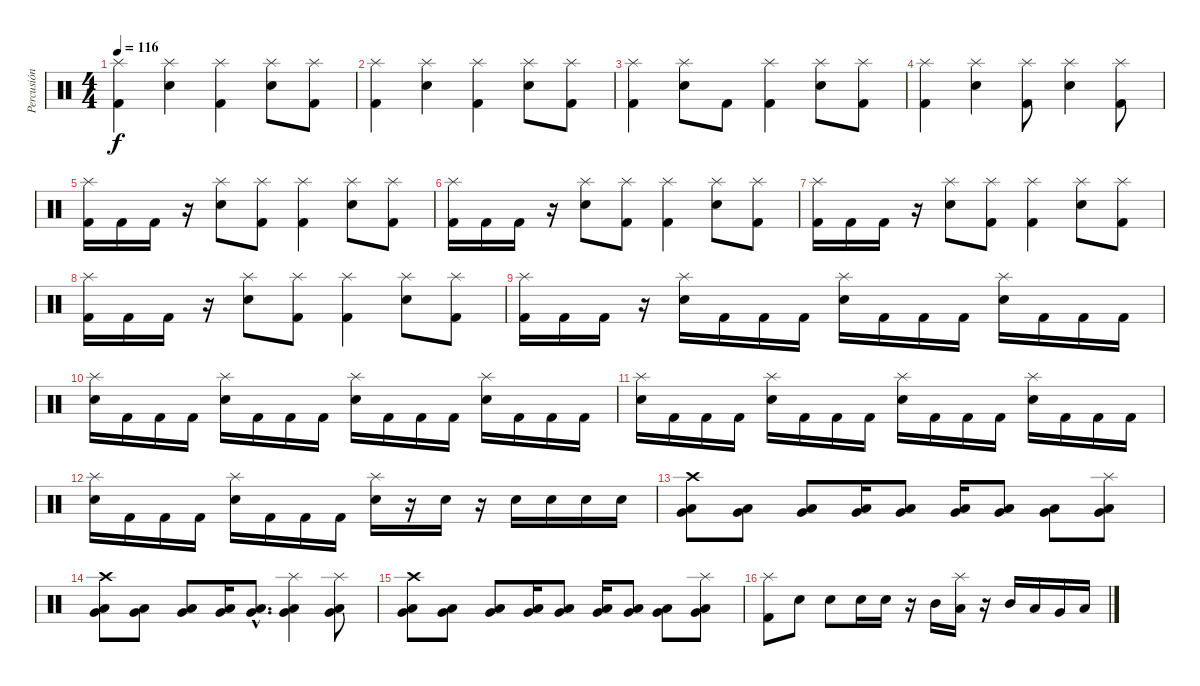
\track ("Percusión" "Percusión") {instrument percussion}
\staff {score}
\articulation defaults
\ts (4 4)
\tempo 116
\clef neutral
\ks c
("Splash (hit)" "Kick (hit) 2").4{dy f} ("Splash (hit)" "Snare (hit) 2").4 ("Splash (hit)" "Kick (hit) 2").4 ("Splash (hit)" "Snare (hit) 2").8 ("Splash (hit)" "Kick (hit) 2").8 |
("Splash (hit)" "Kick (hit) 2").4 ("Splash (hit)" "Snare (hit) 2").4 ("Splash (hit)" "Kick (hit) 2").4 ("Splash (hit)" "Snare (hit) 2").8 ("Splash (hit)" "Kick (hit) 2").8 |
("Splash (hit)" "Kick (hit) 2").4 ("Splash (hit)" "Snare (hit) 2").8 "Kick (hit) 2".8 ("Splash (hit)" "Kick (hit) 2").4 ("Splash (hit)" "Snare (hit) 2").8 ("Splash (hit)" "Kick (hit) 2").8 |
("Splash (hit)" "Kick (hit) 2").4 ("Splash (hit)" "Snare (hit) 2").4 ("Splash (hit)" "Kick (hit) 2").8 ("Splash (hit)" "Snare (hit) 2").4 ("Splash (hit)" "Kick (hit) 2").8 |
("Splash (hit)" "Kick (hit) 2").16 "Kick (hit) 2".16 "Kick (hit) 2".16 r.16 ("Splash (hit)" "Snare (hit) 2").8 ("Splash (hit)" "Kick (hit) 2").8 ("Splash (hit)" "Kick (hit) 2").4 ("Splash (hit)" "Snare (hit) 2").8 ("Splash (hit)" "Kick (hit) 2").8 |
("Splash (hit)" "Kick (hit) 2").16 "Kick (hit) 2".16 "Kick (hit) 2".16 r.16 ("Splash (hit)" "Snare (hit) 2").8 ("Splash (hit)" "Kick (hit) 2").8 ("Splash (hit)" "Kick (hit) 2").4 ("Splash (hit)" "Snare (hit) 2").8 ("Splash (hit)" "Kick (hit) 2").8 |
("Splash (hit)" "Kick (hit) 2").16 "Kick (hit) 2".16 "Kick (hit) 2".16 r.16 ("Splash (hit)" "Snare (hit) 2").8 ("Splash (hit)" "Kick (hit) 2").8 ("Splash (hit)" "Kick (hit) 2").4 ("Splash (hit)" "Snare (hit) 2").8 ("Splash (hit)" "Kick (hit) 2").8 |
("Splash (hit)" "Kick (hit) 2").16 "Kick (hit) 2".16 "Kick (hit) 2".16 r.16 ("Splash (hit)" "Snare (hit) 2").8 ("Splash (hit)" "Kick (hit) 2").8 ("Splash (hit)" "Kick (hit) 2").4 ("Splash (hit)" "Snare (hit) 2").8 ("Splash (hit)" "Kick (hit) 2").8 |
("Splash (hit)" "Kick (hit) 2").16 "Kick (hit) 2".16 "Kick (hit) 2".16 r.16 ("Splash (hit)" "Snare (hit) 2").16 "Kick (hit) 2".16 "Kick (hit) 2".16 "Kick (hit) 2".16 ("Splash (hit)" "Snare (hit) 2").16 "Kick (hit) 2".16 "Kick (hit) 2".16 "Kick (hit) 2".16 ("Splash (hit)" "Snare (hit) 2").16 "Kick (hit) 2".16 "Kick (hit) 2".16 "Kick (hit) 2".16 |
("Splash (hit)" "Snare (hit) 2").16 "Kick (hit) 2".16 "Kick (hit) 2".16 "Kick (hit) 2".16 ("Splash (hit)" "Snare (hit) 2").16 "Kick (hit) 2".16 "Kick (hit) 2".16 "Kick (hit) 2".16 ("Splash (hit)" "Snare (hit) 2").16 "Kick (hit) 2".16 "Kick (hit) 2".16 "Kick (hit) 2".16 ("Splash (hit)" "Snare (hit) 2").16 "Kick (hit) 2".16 "Kick (hit) 2".16 "Kick (hit) 2".16 |
("Splash (hit)" "Snare (hit) 2").16 "Kick (hit) 2".16 "Kick (hit) 2".16 "Kick (hit) 2".16 ("Splash (hit)" "Snare (hit) 2").16 "Kick (hit) 2".16 "Kick (hit) 2".16 "Kick (hit) 2".16 ("Splash (hit)" "Snare (hit) 2").16 "Kick (hit) 2".16 "Kick (hit) 2".16 "Kick (hit) 2".16 ("Splash (hit)" "Snare (hit) 2").16 "Kick (hit) 2".16 "Kick (hit) 2".16 "Kick (hit) 2".16 |
("Splash (hit)" "Snare (hit) 2").16 "Kick (hit) 2".16 "Kick (hit) 2".16 "Kick (hit) 2".16 ("Splash (hit)" "Snare (hit) 2").16 "Kick (hit) 2".16 "Kick (hit) 2".16 "Kick (hit) 2".16 ("Splash (hit)" "Snare (hit) 2").16 r.16 "Snare (hit) 2".16 r.16 "Snare (hit) 2".16 "Snare (hit) 2".16 "Snare (hit) 2".16 "Snare (hit) 2".16 |
("Very Low Tom (hit)" "Low Tom (hit)" "Crash high (hit)").8 ("Very Low Tom (hit)" "Low Floor Tom (hit)").8 ("Very Low Tom (hit)" "Low Floor Tom (hit)").8 ("Very Low Tom (hit)" "Low Floor Tom (hit)").16 ("Very Low Tom (hit)" "Low Floor Tom (hit)").8 ("Very Low Tom (hit)" "Low Floor Tom (hit)").16 ("Very Low Tom (hit)" "Low Floor Tom (hit)").8 ("Very Low Tom (hit)" "Low Floor Tom (hit)").8 ("Very Low Tom (hit)" "Low Tom (hit)" "Splash (hit)").8 |
("Very Low Tom (hit)" "Low Tom (hit)" "Crash high (hit)").8 ("Very Low Tom (hit)" "Low Floor Tom (hit)").8 ("Very Low Tom (hit)" "Low Floor Tom (hit)").8 ("Very Low Tom (hit)" "Low Floor Tom (hit)").16 ("Very Low Tom (hit)"{hac} "Low Floor Tom (hit)"{hac}).8{d} ("Very Low Tom (hit)" "Low Floor Tom (hit)" "Splash (hit)").4 ("Very Low Tom (hit)" "Low Tom (hit)" "Splash (hit)").8 |
("Very Low Tom (hit)" "Low Tom (hit)" "Crash high (hit)").8 ("Very Low Tom (hit)" "Low Floor Tom (hit)").8 ("Very Low Tom (hit)" "Low Floor Tom (hit)").8 ("Very Low Tom (hit)" "Low Floor Tom (hit)").16 ("Very Low Tom (hit)" "Low Floor Tom (hit)").8 ("Very Low Tom (hit)" "Low Floor Tom (hit)").16 ("Very Low Tom (hit)" "Low Floor Tom (hit)").8 ("Very Low Tom (hit)" "Low Floor Tom (hit)").8 ("Very Low Tom (hit)" "Low Tom (hit)" "Splash (hit)").8 |
("Splash (hit)" "Kick (hit) 2").8 "Snare (hit) 2".8 "Snare (hit) 2".8 "Snare (hit) 2".16 "Snare (hit) 2".16 r.16 "Mid Tom (hit)".16 ("Low Tom (hit)" "Splash (hit)").16 r.16 "Mid Tom (hit)".16 "Low Tom (hit)".16 "Very Low Tom (hit)".16 "Low Floor Tom (hit)".16
